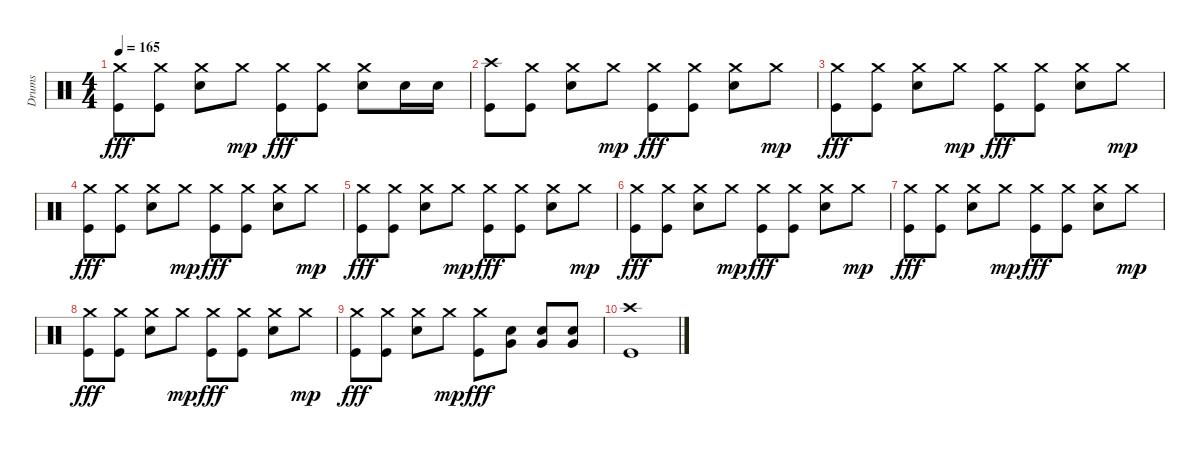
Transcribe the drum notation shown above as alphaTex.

\track ("Drums" "Drums") {instrument percussion}
\staff {score}
\articulation defaults
\ts (4 4)
\tempo 165
\clef neutral
\ks c
("Crash medium (hit)" "Kick (hit)").8{dy fff} ("Crash medium (hit)" "Kick (hit)").8 ("Crash medium (hit)" "Snare (hit) 2").8 "Crash medium (hit)".8{dy mp} ("Crash medium (hit)" "Kick (hit)").8{dy fff} ("Crash medium (hit)" "Kick (hit)").8 ("Crash medium (hit)" "Snare (hit) 2").8 "Snare (hit) 2".16 "Snare (hit) 2".16 |
("Crash high (hit)" "Kick (hit)").8 ("Crash medium (hit)" "Kick (hit)").8 ("Crash medium (hit)" "Snare (hit) 2").8 "Crash medium (hit)".8{dy mp} ("Crash medium (hit)" "Kick (hit)").8{dy fff} ("Crash medium (hit)" "Kick (hit)").8 ("Crash medium (hit)" "Snare (hit) 2").8 "Crash medium (hit)".8{dy mp} |
("Crash medium (hit)" "Kick (hit)").8{dy fff} ("Crash medium (hit)" "Kick (hit)").8 ("Crash medium (hit)" "Snare (hit) 2").8 "Crash medium (hit)".8{dy mp} ("Crash medium (hit)" "Kick (hit)").8{dy fff} ("Crash medium (hit)" "Kick (hit)").8 ("Crash medium (hit)" "Snare (hit) 2").8 "Crash medium (hit)".8{dy mp} |
("Crash medium (hit)" "Kick (hit)").8{dy fff} ("Crash medium (hit)" "Kick (hit)").8 ("Crash medium (hit)" "Snare (hit) 2").8 "Crash medium (hit)".8{dy mp} ("Crash medium (hit)" "Kick (hit)").8{dy fff} ("Crash medium (hit)" "Kick (hit)").8 ("Crash medium (hit)" "Snare (hit) 2").8 "Crash medium (hit)".8{dy mp} |
("Crash medium (hit)" "Kick (hit)").8{dy fff} ("Crash medium (hit)" "Kick (hit)").8 ("Crash medium (hit)" "Snare (hit) 2").8 "Crash medium (hit)".8{dy mp} ("Crash medium (hit)" "Kick (hit)").8{dy fff} ("Crash medium (hit)" "Kick (hit)").8 ("Crash medium (hit)" "Snare (hit) 2").8 "Crash medium (hit)".8{dy mp} |
("Crash medium (hit)" "Kick (hit)").8{dy fff} ("Crash medium (hit)" "Kick (hit)").8 ("Crash medium (hit)" "Snare (hit) 2").8 "Crash medium (hit)".8{dy mp} ("Crash medium (hit)" "Kick (hit)").8{dy fff} ("Crash medium (hit)" "Kick (hit)").8 ("Crash medium (hit)" "Snare (hit) 2").8 "Crash medium (hit)".8{dy mp} |
("Crash medium (hit)" "Kick (hit)").8{dy fff} ("Crash medium (hit)" "Kick (hit)").8 ("Crash medium (hit)" "Snare (hit) 2").8 "Crash medium (hit)".8{dy mp} ("Crash medium (hit)" "Kick (hit)").8{dy fff} ("Crash medium (hit)" "Kick (hit)").8 ("Crash medium (hit)" "Snare (hit) 2").8 "Crash medium (hit)".8{dy mp} |
("Crash medium (hit)" "Kick (hit)").8{dy fff} ("Crash medium (hit)" "Kick (hit)").8 ("Crash medium (hit)" "Snare (hit) 2").8 "Crash medium (hit)".8{dy mp} ("Crash medium (hit)" "Kick (hit)").8{dy fff} ("Crash medium (hit)" "Kick (hit)").8 ("Crash medium (hit)" "Snare (hit) 2").8 "Crash medium (hit)".8{dy mp} |
("Crash medium (hit)" "Kick (hit)").8{dy fff} ("Crash medium (hit)" "Kick (hit)").8 ("Crash medium (hit)" "Snare (hit) 2").8 "Crash medium (hit)".8{dy mp} ("Crash medium (hit)" "Kick (hit)").8{dy fff} ("Snare (hit) 2" "Very Low Tom (hit)").8 ("Snare (hit) 2" "Very Low Tom (hit)").8 ("Snare (hit) 2" "Very Low Tom (hit)").8 |
("Crash high (hit)" "Kick (hit)").1
